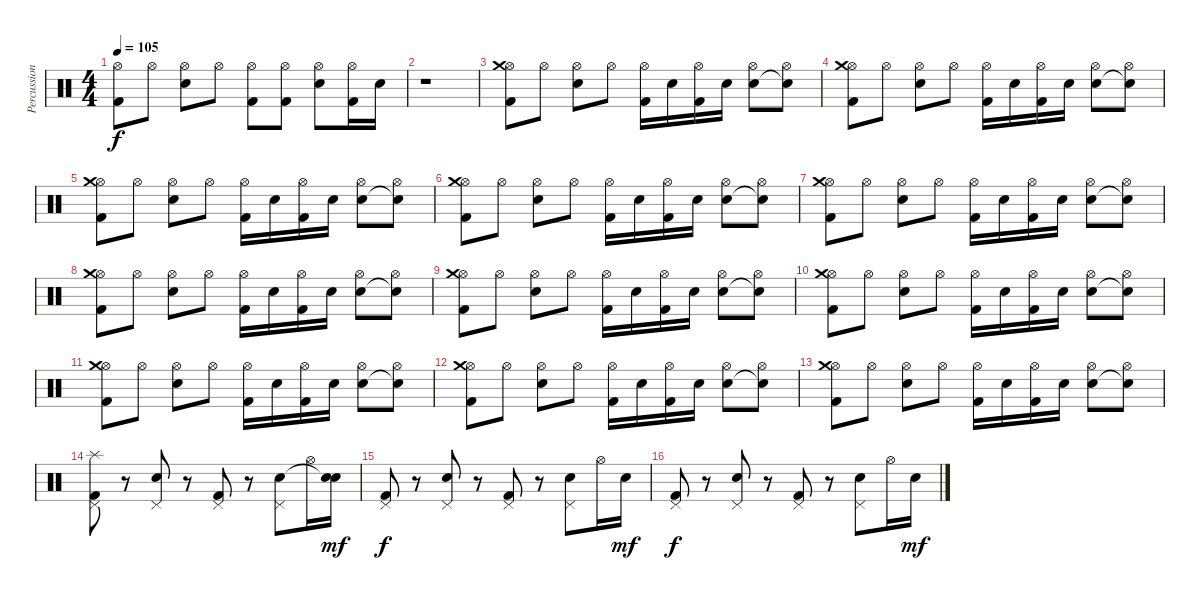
\track ("Percussions" "Percussion") {instrument percussion}
\staff {score}
\articulation defaults
\ts (4 4)
\tempo 105
\clef neutral
\ks c
("Hi-Hat (open)" "Kick (hit) 2").8{dy f} "Hi-Hat (open)".8 ("Hi-Hat (open)" "Electric Snare (hit)").8 "Hi-Hat (open)".8 ("Hi-Hat (open)" "Kick (hit) 2").8 ("Hi-Hat (open)" "Kick (hit) 2").8 ("Hi-Hat (open)" "Electric Snare (hit)").8 ("Hi-Hat (open)" "Kick (hit) 2").16 "Electric Snare (hit)".16 |
r.1 |
("Hi-Hat (open)" "Kick (hit) 2" "Crash medium (hit)").8 "Hi-Hat (open)".8 ("Hi-Hat (open)" "Electric Snare (hit)").8 "Hi-Hat (open)".8 ("Hi-Hat (open)" "Kick (hit) 2").16 "Electric Snare (hit)".16 ("Hi-Hat (open)" "Kick (hit) 2").16 "Electric Snare (hit)".16 ("Hi-Hat (open)" "Electric Snare (hit)").8 ("Hi-Hat (open)" "Snare (hit)"{t}).8 |
("Hi-Hat (open)" "Kick (hit) 2" "Crash medium (hit)").8 "Hi-Hat (open)".8 ("Hi-Hat (open)" "Electric Snare (hit)").8 "Hi-Hat (open)".8 ("Hi-Hat (open)" "Kick (hit) 2").16 "Electric Snare (hit)".16 ("Hi-Hat (open)" "Kick (hit) 2").16 "Electric Snare (hit)".16 ("Hi-Hat (open)" "Electric Snare (hit)").8 ("Hi-Hat (open)" "Snare (hit)"{t}).8 |
("Hi-Hat (open)" "Kick (hit) 2" "Crash medium (hit)").8 "Hi-Hat (open)".8 ("Hi-Hat (open)" "Electric Snare (hit)").8 "Hi-Hat (open)".8 ("Hi-Hat (open)" "Kick (hit) 2").16 "Electric Snare (hit)".16 ("Hi-Hat (open)" "Kick (hit) 2").16 "Electric Snare (hit)".16 ("Hi-Hat (open)" "Electric Snare (hit)").8 ("Hi-Hat (open)" "Snare (hit)"{t}).8 |
("Hi-Hat (open)" "Kick (hit) 2" "Crash medium (hit)").8 "Hi-Hat (open)".8 ("Hi-Hat (open)" "Electric Snare (hit)").8 "Hi-Hat (open)".8 ("Hi-Hat (open)" "Kick (hit) 2").16 "Electric Snare (hit)".16 ("Hi-Hat (open)" "Kick (hit) 2").16 "Electric Snare (hit)".16 ("Hi-Hat (open)" "Electric Snare (hit)").8 ("Hi-Hat (open)" "Snare (hit)"{t}).8 |
("Hi-Hat (open)" "Kick (hit) 2" "Crash medium (hit)").8 "Hi-Hat (open)".8 ("Hi-Hat (open)" "Electric Snare (hit)").8 "Hi-Hat (open)".8 ("Hi-Hat (open)" "Kick (hit) 2").16 "Electric Snare (hit)".16 ("Hi-Hat (open)" "Kick (hit) 2").16 "Electric Snare (hit)".16 ("Hi-Hat (open)" "Electric Snare (hit)").8 ("Hi-Hat (open)" "Snare (hit)"{t}).8 |
("Hi-Hat (open)" "Kick (hit) 2" "Crash medium (hit)").8 "Hi-Hat (open)".8 ("Hi-Hat (open)" "Electric Snare (hit)").8 "Hi-Hat (open)".8 ("Hi-Hat (open)" "Kick (hit) 2").16 "Electric Snare (hit)".16 ("Hi-Hat (open)" "Kick (hit) 2").16 "Electric Snare (hit)".16 ("Hi-Hat (open)" "Electric Snare (hit)").8 ("Hi-Hat (open)" "Snare (hit)"{t}).8 |
("Hi-Hat (open)" "Kick (hit) 2" "Crash medium (hit)").8 "Hi-Hat (open)".8 ("Hi-Hat (open)" "Electric Snare (hit)").8 "Hi-Hat (open)".8 ("Hi-Hat (open)" "Kick (hit) 2").16 "Electric Snare (hit)".16 ("Hi-Hat (open)" "Kick (hit) 2").16 "Electric Snare (hit)".16 ("Hi-Hat (open)" "Electric Snare (hit)").8 ("Hi-Hat (open)" "Snare (hit)"{t}).8 |
("Hi-Hat (open)" "Kick (hit) 2" "Crash medium (hit)").8 "Hi-Hat (open)".8 ("Hi-Hat (open)" "Electric Snare (hit)").8 "Hi-Hat (open)".8 ("Hi-Hat (open)" "Kick (hit) 2").16 "Electric Snare (hit)".16 ("Hi-Hat (open)" "Kick (hit) 2").16 "Electric Snare (hit)".16 ("Hi-Hat (open)" "Electric Snare (hit)").8 ("Hi-Hat (open)" "Snare (hit)"{t}).8 |
("Hi-Hat (open)" "Kick (hit) 2" "Crash medium (hit)").8 "Hi-Hat (open)".8 ("Hi-Hat (open)" "Electric Snare (hit)").8 "Hi-Hat (open)".8 ("Hi-Hat (open)" "Kick (hit) 2").16 "Electric Snare (hit)".16 ("Hi-Hat (open)" "Kick (hit) 2").16 "Electric Snare (hit)".16 ("Hi-Hat (open)" "Electric Snare (hit)").8 ("Hi-Hat (open)" "Snare (hit)"{t}).8 |
("Hi-Hat (open)" "Kick (hit) 2" "Crash medium (hit)").8 "Hi-Hat (open)".8 ("Hi-Hat (open)" "Electric Snare (hit)").8 "Hi-Hat (open)".8 ("Hi-Hat (open)" "Kick (hit) 2").16 "Electric Snare (hit)".16 ("Hi-Hat (open)" "Kick (hit) 2").16 "Electric Snare (hit)".16 ("Hi-Hat (open)" "Electric Snare (hit)").8 ("Hi-Hat (open)" "Snare (hit)"{t}).8 |
("Hi-Hat (open)" "Kick (hit) 2" "Crash medium (hit)").8 "Hi-Hat (open)".8 ("Hi-Hat (open)" "Electric Snare (hit)").8 "Hi-Hat (open)".8 ("Hi-Hat (open)" "Kick (hit) 2").16 "Electric Snare (hit)".16 ("Hi-Hat (open)" "Kick (hit) 2").16 "Electric Snare (hit)".16 ("Hi-Hat (open)" "Electric Snare (hit)").8 ("Hi-Hat (open)" "Snare (hit)"{t}).8 |
("Pedal Hi-Hat (hit)" "Kick (hit) 2" "Splash (hit)").8 r.8 ("Pedal Hi-Hat (hit)" "Electric Snare (hit)").8 r.8 ("Pedal Hi-Hat (hit)" "Kick (hit) 2").8 r.8 ("Pedal Hi-Hat (hit)" "Electric Snare (hit)").8 "Hi-Hat (open)".16 ("Electric Snare (hit)" "Snare (hit)"{t}).16{dy mf} |
("Pedal Hi-Hat (hit)" "Kick (hit) 2").8{dy f} r.8 ("Pedal Hi-Hat (hit)" "Electric Snare (hit)").8 r.8 ("Pedal Hi-Hat (hit)" "Kick (hit) 2").8 r.8 ("Pedal Hi-Hat (hit)" "Electric Snare (hit)").8 "Hi-Hat (open)".16 "Electric Snare (hit)".16{dy mf} |
("Pedal Hi-Hat (hit)" "Kick (hit) 2").8{dy f} r.8 ("Pedal Hi-Hat (hit)" "Electric Snare (hit)").8 r.8 ("Pedal Hi-Hat (hit)" "Kick (hit) 2").8 r.8 ("Pedal Hi-Hat (hit)" "Electric Snare (hit)").8 "Hi-Hat (open)".16 "Electric Snare (hit)".16{dy mf}
